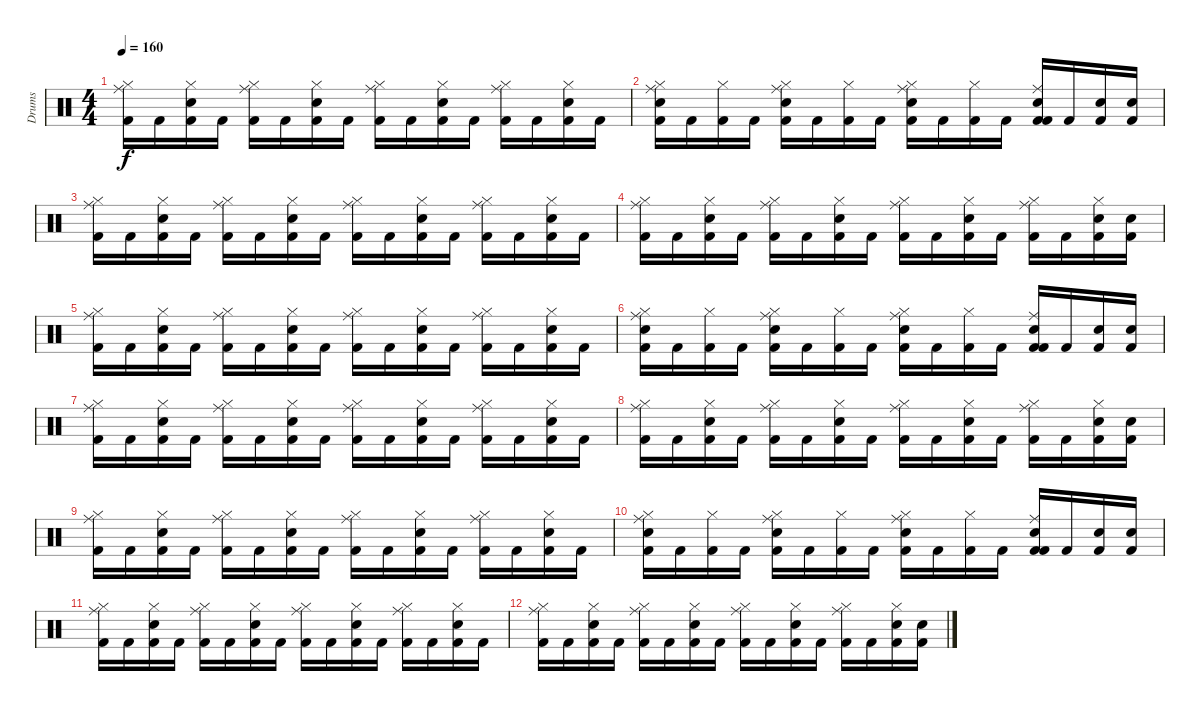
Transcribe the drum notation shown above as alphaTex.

\track ("Drums" "Drums") {instrument percussion}
\staff {score}
\articulation defaults
\ts (4 4)
\tempo 160
\clef neutral
\ks c
("Kick (hit) 2" "Ride (middle)" "Hi-Hat (closed)").16{dy f} "Kick (hit) 2".16 ("Electric Snare (hit)" "Kick (hit) 2" "Hi-Hat (closed)").16 "Kick (hit) 2".16 ("Kick (hit) 2" "Ride (middle)" "Hi-Hat (closed)").16 "Kick (hit) 2".16 ("Electric Snare (hit)" "Kick (hit) 2" "Hi-Hat (closed)").16 "Kick (hit) 2".16 ("Kick (hit) 2" "Ride (middle)" "Hi-Hat (closed)").16 "Kick (hit) 2".16 ("Electric Snare (hit)" "Kick (hit) 2" "Hi-Hat (closed)").16 "Kick (hit) 2".16 ("Kick (hit) 2" "Ride (middle)" "Hi-Hat (closed)").16 "Kick (hit) 2".16 ("Electric Snare (hit)" "Kick (hit) 2" "Hi-Hat (closed)").16 "Kick (hit) 2".16 |
("Electric Snare (hit)" "Kick (hit) 2" "Ride (middle)" "Hi-Hat (closed)").16 "Kick (hit) 2".16 ("Kick (hit) 2" "Hi-Hat (closed)").16 "Kick (hit) 2".16 ("Electric Snare (hit)" "Kick (hit) 2" "Ride (middle)" "Hi-Hat (closed)").16 "Kick (hit) 2".16 ("Kick (hit) 2" "Hi-Hat (closed)").16 "Kick (hit) 2".16 ("Electric Snare (hit)" "Kick (hit) 2" "Ride (middle)" "Hi-Hat (closed)").16 "Kick (hit) 2".16 ("Kick (hit) 2" "Hi-Hat (closed)").16 "Kick (hit) 2".16 ("Electric Snare (hit)" "Kick (hit) 2" "Ride (middle)" "Kick (hit) 2").16 "Kick (hit) 2".16 ("Electric Snare (hit)" "Kick (hit) 2").16 ("Electric Snare (hit)" "Kick (hit) 2").16 |
("Kick (hit) 2" "Ride (middle)" "Hi-Hat (closed)").16 "Kick (hit) 2".16 ("Electric Snare (hit)" "Kick (hit) 2" "Hi-Hat (closed)").16 "Kick (hit) 2".16 ("Kick (hit) 2" "Ride (middle)" "Hi-Hat (closed)").16 "Kick (hit) 2".16 ("Electric Snare (hit)" "Kick (hit) 2" "Hi-Hat (closed)").16 "Kick (hit) 2".16 ("Kick (hit) 2" "Ride (middle)" "Hi-Hat (closed)").16 "Kick (hit) 2".16 ("Electric Snare (hit)" "Kick (hit) 2" "Hi-Hat (closed)").16 "Kick (hit) 2".16 ("Kick (hit) 2" "Ride (middle)" "Hi-Hat (closed)").16 "Kick (hit) 2".16 ("Electric Snare (hit)" "Kick (hit) 2" "Hi-Hat (closed)").16 "Kick (hit) 2".16 |
("Kick (hit) 2" "Ride (middle)" "Hi-Hat (closed)").16 "Kick (hit) 2".16 ("Electric Snare (hit)" "Kick (hit) 2" "Hi-Hat (closed)").16 "Kick (hit) 2".16 ("Kick (hit) 2" "Ride (middle)" "Hi-Hat (closed)").16 "Kick (hit) 2".16 ("Electric Snare (hit)" "Kick (hit) 2" "Hi-Hat (closed)").16 "Kick (hit) 2".16 ("Kick (hit) 2" "Ride (middle)" "Hi-Hat (closed)").16 "Kick (hit) 2".16 ("Electric Snare (hit)" "Kick (hit) 2" "Hi-Hat (closed)").16 "Kick (hit) 2".16 ("Kick (hit) 2" "Ride (middle)" "Hi-Hat (closed)").16 "Kick (hit) 2".16 ("Electric Snare (hit)" "Kick (hit) 2" "Hi-Hat (closed)").16 ("Electric Snare (hit)" "Kick (hit) 2").16 |
("Kick (hit) 2" "Ride (middle)" "Hi-Hat (closed)").16 "Kick (hit) 2".16 ("Electric Snare (hit)" "Kick (hit) 2" "Hi-Hat (closed)").16 "Kick (hit) 2".16 ("Kick (hit) 2" "Ride (middle)" "Hi-Hat (closed)").16 "Kick (hit) 2".16 ("Electric Snare (hit)" "Kick (hit) 2" "Hi-Hat (closed)").16 "Kick (hit) 2".16 ("Kick (hit) 2" "Ride (middle)" "Hi-Hat (closed)").16 "Kick (hit) 2".16 ("Electric Snare (hit)" "Kick (hit) 2" "Hi-Hat (closed)").16 "Kick (hit) 2".16 ("Kick (hit) 2" "Ride (middle)" "Hi-Hat (closed)").16 "Kick (hit) 2".16 ("Electric Snare (hit)" "Kick (hit) 2" "Hi-Hat (closed)").16 "Kick (hit) 2".16 |
("Electric Snare (hit)" "Kick (hit) 2" "Ride (middle)" "Hi-Hat (closed)").16 "Kick (hit) 2".16 ("Kick (hit) 2" "Hi-Hat (closed)").16 "Kick (hit) 2".16 ("Electric Snare (hit)" "Kick (hit) 2" "Ride (middle)" "Hi-Hat (closed)").16 "Kick (hit) 2".16 ("Kick (hit) 2" "Hi-Hat (closed)").16 "Kick (hit) 2".16 ("Electric Snare (hit)" "Kick (hit) 2" "Ride (middle)" "Hi-Hat (closed)").16 "Kick (hit) 2".16 ("Kick (hit) 2" "Hi-Hat (closed)").16 "Kick (hit) 2".16 ("Electric Snare (hit)" "Kick (hit) 2" "Ride (middle)" "Kick (hit) 2").16 "Kick (hit) 2".16 ("Electric Snare (hit)" "Kick (hit) 2").16 ("Electric Snare (hit)" "Kick (hit) 2").16 |
("Kick (hit) 2" "Ride (middle)" "Hi-Hat (closed)").16 "Kick (hit) 2".16 ("Electric Snare (hit)" "Kick (hit) 2" "Hi-Hat (closed)").16 "Kick (hit) 2".16 ("Kick (hit) 2" "Ride (middle)" "Hi-Hat (closed)").16 "Kick (hit) 2".16 ("Electric Snare (hit)" "Kick (hit) 2" "Hi-Hat (closed)").16 "Kick (hit) 2".16 ("Kick (hit) 2" "Ride (middle)" "Hi-Hat (closed)").16 "Kick (hit) 2".16 ("Electric Snare (hit)" "Kick (hit) 2" "Hi-Hat (closed)").16 "Kick (hit) 2".16 ("Kick (hit) 2" "Ride (middle)" "Hi-Hat (closed)").16 "Kick (hit) 2".16 ("Electric Snare (hit)" "Kick (hit) 2" "Hi-Hat (closed)").16 "Kick (hit) 2".16 |
("Kick (hit) 2" "Ride (middle)" "Hi-Hat (closed)").16 "Kick (hit) 2".16 ("Electric Snare (hit)" "Kick (hit) 2" "Hi-Hat (closed)").16 "Kick (hit) 2".16 ("Kick (hit) 2" "Ride (middle)" "Hi-Hat (closed)").16 "Kick (hit) 2".16 ("Electric Snare (hit)" "Kick (hit) 2" "Hi-Hat (closed)").16 "Kick (hit) 2".16 ("Kick (hit) 2" "Ride (middle)" "Hi-Hat (closed)").16 "Kick (hit) 2".16 ("Electric Snare (hit)" "Kick (hit) 2" "Hi-Hat (closed)").16 "Kick (hit) 2".16 ("Kick (hit) 2" "Ride (middle)" "Hi-Hat (closed)").16 "Kick (hit) 2".16 ("Electric Snare (hit)" "Kick (hit) 2" "Hi-Hat (closed)").16 ("Electric Snare (hit)" "Kick (hit) 2").16 |
("Kick (hit) 2" "Ride (middle)" "Hi-Hat (closed)").16 "Kick (hit) 2".16 ("Electric Snare (hit)" "Kick (hit) 2" "Hi-Hat (closed)").16 "Kick (hit) 2".16 ("Kick (hit) 2" "Ride (middle)" "Hi-Hat (closed)").16 "Kick (hit) 2".16 ("Electric Snare (hit)" "Kick (hit) 2" "Hi-Hat (closed)").16 "Kick (hit) 2".16 ("Kick (hit) 2" "Ride (middle)" "Hi-Hat (closed)").16 "Kick (hit) 2".16 ("Electric Snare (hit)" "Kick (hit) 2" "Hi-Hat (closed)").16 "Kick (hit) 2".16 ("Kick (hit) 2" "Ride (middle)" "Hi-Hat (closed)").16 "Kick (hit) 2".16 ("Electric Snare (hit)" "Kick (hit) 2" "Hi-Hat (closed)").16 "Kick (hit) 2".16 |
("Electric Snare (hit)" "Kick (hit) 2" "Ride (middle)" "Hi-Hat (closed)").16 "Kick (hit) 2".16 ("Kick (hit) 2" "Hi-Hat (closed)").16 "Kick (hit) 2".16 ("Electric Snare (hit)" "Kick (hit) 2" "Ride (middle)" "Hi-Hat (closed)").16 "Kick (hit) 2".16 ("Kick (hit) 2" "Hi-Hat (closed)").16 "Kick (hit) 2".16 ("Electric Snare (hit)" "Kick (hit) 2" "Ride (middle)" "Hi-Hat (closed)").16 "Kick (hit) 2".16 ("Kick (hit) 2" "Hi-Hat (closed)").16 "Kick (hit) 2".16 ("Electric Snare (hit)" "Kick (hit) 2" "Ride (middle)" "Kick (hit) 2").16 "Kick (hit) 2".16 ("Electric Snare (hit)" "Kick (hit) 2").16 ("Electric Snare (hit)" "Kick (hit) 2").16 |
("Kick (hit) 2" "Ride (middle)" "Hi-Hat (closed)").16 "Kick (hit) 2".16 ("Electric Snare (hit)" "Kick (hit) 2" "Hi-Hat (closed)").16 "Kick (hit) 2".16 ("Kick (hit) 2" "Ride (middle)" "Hi-Hat (closed)").16 "Kick (hit) 2".16 ("Electric Snare (hit)" "Kick (hit) 2" "Hi-Hat (closed)").16 "Kick (hit) 2".16 ("Kick (hit) 2" "Ride (middle)" "Hi-Hat (closed)").16 "Kick (hit) 2".16 ("Electric Snare (hit)" "Kick (hit) 2" "Hi-Hat (closed)").16 "Kick (hit) 2".16 ("Kick (hit) 2" "Ride (middle)" "Hi-Hat (closed)").16 "Kick (hit) 2".16 ("Electric Snare (hit)" "Kick (hit) 2" "Hi-Hat (closed)").16 "Kick (hit) 2".16 |
("Kick (hit) 2" "Ride (middle)" "Hi-Hat (closed)").16 "Kick (hit) 2".16 ("Electric Snare (hit)" "Kick (hit) 2" "Hi-Hat (closed)").16 "Kick (hit) 2".16 ("Kick (hit) 2" "Ride (middle)" "Hi-Hat (closed)").16 "Kick (hit) 2".16 ("Electric Snare (hit)" "Kick (hit) 2" "Hi-Hat (closed)").16 "Kick (hit) 2".16 ("Kick (hit) 2" "Ride (middle)" "Hi-Hat (closed)").16 "Kick (hit) 2".16 ("Electric Snare (hit)" "Kick (hit) 2" "Hi-Hat (closed)").16 "Kick (hit) 2".16 ("Kick (hit) 2" "Ride (middle)" "Hi-Hat (closed)").16 "Kick (hit) 2".16 ("Electric Snare (hit)" "Kick (hit) 2" "Hi-Hat (closed)").16 ("Electric Snare (hit)" "Kick (hit) 2").16
